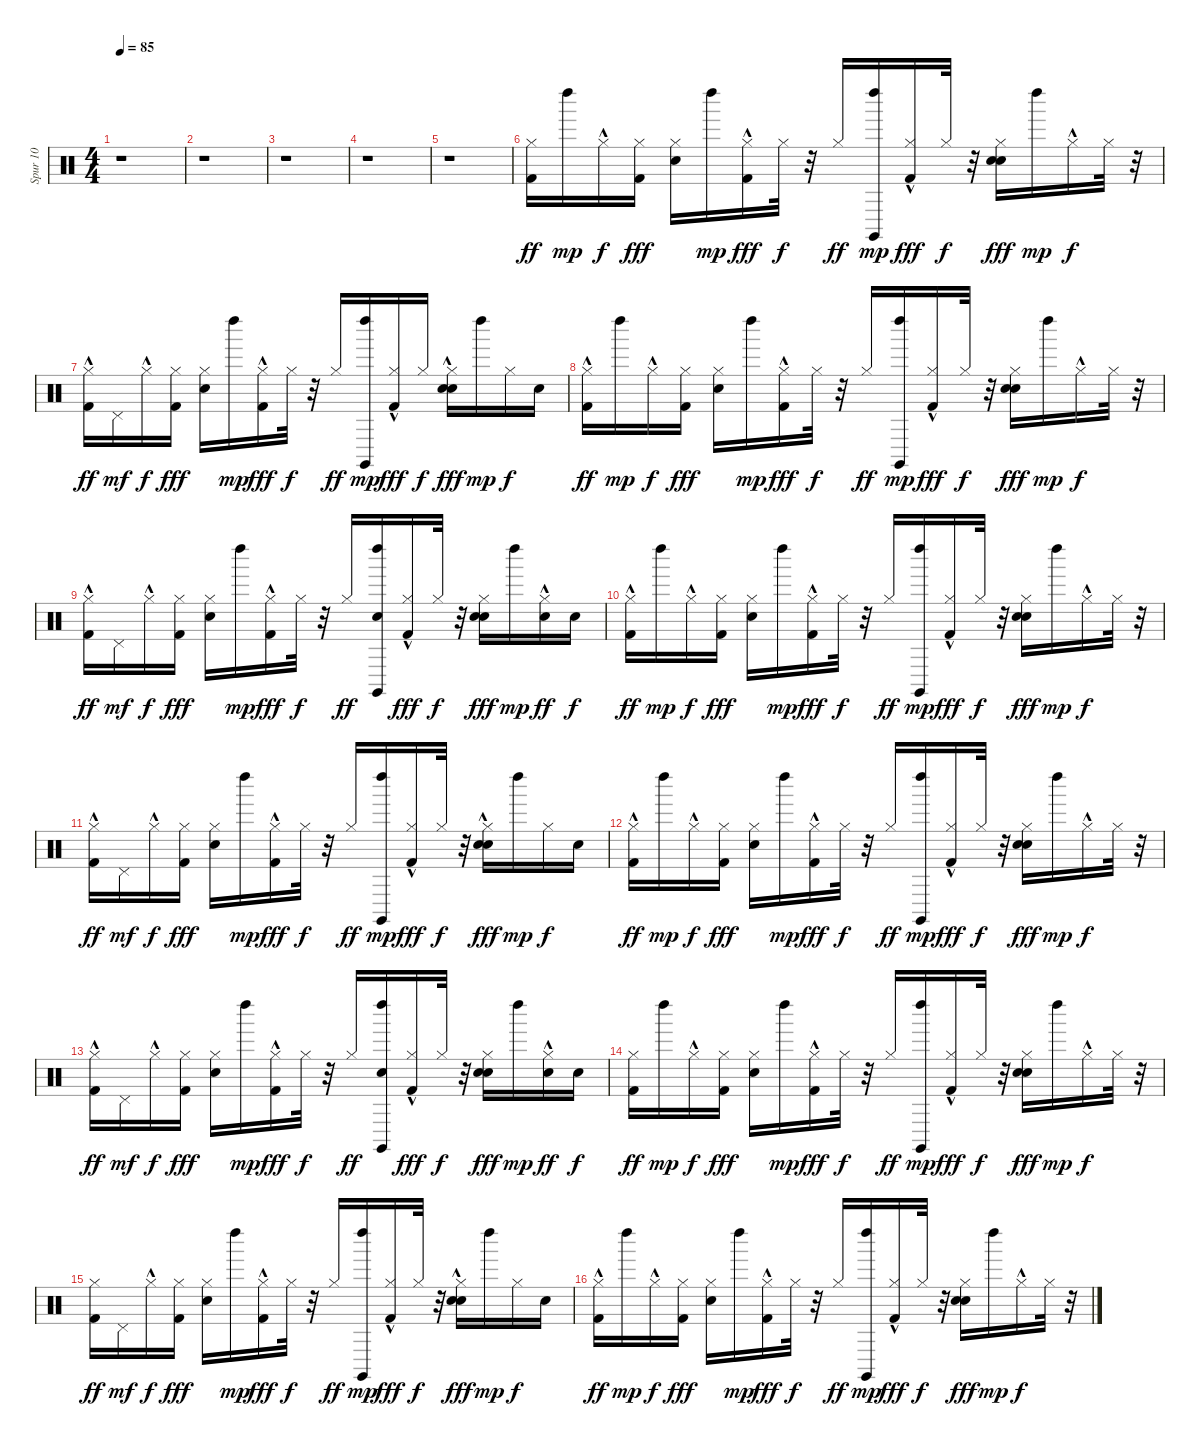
\track ("Spur 10" "Spur 10") {instrument percussion}
\staff {score}
\articulation defaults
\ts (4 4)
\tempo 85
\clef neutral
\ks c
r.1{dy ff} |
r.1 |
r.1 |
r.1 |
r.1 |
("Kick (hit) 2" "Hi-Hat (closed)").16 "Left Maraca (hit)".16{dy mp} "Hi-Hat (closed)"{hac}.16{dy f} ("Kick (hit) 2" "Hi-Hat (closed)").16{dy fff} ("Hi-Hat (closed)" "Snare (hit) 2").16 "Left Maraca (hit)".16{dy mp} ("Kick (hit) 2" "Hi-Hat (closed)"{hac}).16{dy fff} "Hi-Hat (closed)".32{dy f} r.32 "Hi-Hat (closed)".16{dy ff} ("Left Maraca (hit)" "Claves (hit)").16{dy mp} ("Kick (hit) 2"{hac} "Hi-Hat (closed)").16{dy fff} "Hi-Hat (closed)".32{dy f} r.32 ("Hi-Hat (closed)" "Snare (hit) 2" "Hand Clap (hit)").16{dy fff} "Left Maraca (hit)".16{dy mp} "Hi-Hat (closed)"{hac}.16{dy f} "Hi-Hat (closed)".32 r.32 |
("Kick (hit) 2"{hac} "Hi-Hat (closed)").16{dy ff} "Pedal Hi-Hat (hit)".16{dy mf} "Hi-Hat (closed)"{hac}.16{dy f} ("Kick (hit) 2" "Hi-Hat (closed)").16{dy fff} ("Hi-Hat (closed)" "Snare (hit) 2").16 "Left Maraca (hit)".16{dy mp} ("Kick (hit) 2" "Hi-Hat (closed)"{hac}).16{dy fff} "Hi-Hat (closed)".32{dy f} r.32 "Hi-Hat (closed)".16{dy ff} ("Left Maraca (hit)" "Claves (hit)").16{dy mp} ("Kick (hit) 2" "Hi-Hat (closed)"{hac}).16{dy fff} "Hi-Hat (closed)".16{dy f} ("Hi-Hat (closed)" "Snare (hit) 2"{hac} "Hand Clap (hit)").16{dy fff} "Left Maraca (hit)".16{dy mp} "Hi-Hat (closed)".16{dy f} "Snare (hit) 2".16 |
("Kick (hit) 2"{hac} "Hi-Hat (closed)").16{dy ff} "Left Maraca (hit)".16{dy mp} "Hi-Hat (closed)"{hac}.16{dy f} ("Kick (hit) 2" "Hi-Hat (closed)").16{dy fff} ("Hi-Hat (closed)" "Snare (hit) 2").16 "Left Maraca (hit)".16{dy mp} ("Kick (hit) 2" "Hi-Hat (closed)"{hac}).16{dy fff} "Hi-Hat (closed)".32{dy f} r.32 "Hi-Hat (closed)".16{dy ff} ("Left Maraca (hit)" "Claves (hit)").16{dy mp} ("Kick (hit) 2"{hac} "Hi-Hat (closed)"{hac}).16{dy fff} "Hi-Hat (closed)".32{dy f} r.32 ("Hi-Hat (closed)" "Snare (hit) 2" "Hand Clap (hit)").16{dy fff} "Left Maraca (hit)".16{dy mp} "Hi-Hat (closed)"{hac}.16{dy f} "Hi-Hat (closed)".32 r.32 |
("Kick (hit) 2"{hac} "Hi-Hat (closed)").16{dy ff} "Pedal Hi-Hat (hit)".16{dy mf} "Hi-Hat (closed)"{hac}.16{dy f} ("Kick (hit) 2" "Hi-Hat (closed)").16{dy fff} ("Hi-Hat (closed)" "Snare (hit) 2").16 "Left Maraca (hit)".16{dy mp} ("Kick (hit) 2" "Hi-Hat (closed)"{hac}).16{dy fff} "Hi-Hat (closed)".32{dy f} r.32 "Hi-Hat (closed)".16{dy ff} ("Left Maraca (hit)" "Claves (hit)" "Snare (hit) 2").16 ("Kick (hit) 2"{hac} "Hi-Hat (closed)"{hac}).16{dy fff} "Hi-Hat (closed)".32{dy f} r.32 ("Hi-Hat (closed)" "Snare (hit) 2" "Hand Clap (hit)").16{dy fff} "Left Maraca (hit)".16{dy mp} ("Hi-Hat (closed)" "Snare (hit) 2"{hac}).16{dy ff} "Snare (hit) 2".16{dy f} |
("Kick (hit) 2"{hac} "Hi-Hat (closed)").16{dy ff} "Left Maraca (hit)".16{dy mp} "Hi-Hat (closed)"{hac}.16{dy f} ("Kick (hit) 2" "Hi-Hat (closed)").16{dy fff} ("Hi-Hat (closed)" "Snare (hit) 2").16 "Left Maraca (hit)".16{dy mp} ("Kick (hit) 2" "Hi-Hat (closed)"{hac}).16{dy fff} "Hi-Hat (closed)".32{dy f} r.32 "Hi-Hat (closed)".16{dy ff} ("Left Maraca (hit)" "Claves (hit)").16{dy mp} ("Kick (hit) 2"{hac} "Hi-Hat (closed)"{hac}).16{dy fff} "Hi-Hat (closed)".32{dy f} r.32 ("Hi-Hat (closed)" "Snare (hit) 2" "Hand Clap (hit)").16{dy fff} "Left Maraca (hit)".16{dy mp} "Hi-Hat (closed)"{hac}.16{dy f} "Hi-Hat (closed)".32 r.32 |
("Kick (hit) 2"{hac} "Hi-Hat (closed)").16{dy ff} "Pedal Hi-Hat (hit)".16{dy mf} "Hi-Hat (closed)"{hac}.16{dy f} ("Kick (hit) 2" "Hi-Hat (closed)").16{dy fff} ("Hi-Hat (closed)" "Snare (hit) 2").16 "Left Maraca (hit)".16{dy mp} ("Kick (hit) 2" "Hi-Hat (closed)"{hac}).16{dy fff} "Hi-Hat (closed)".32{dy f} r.32 "Hi-Hat (closed)".16{dy ff} ("Left Maraca (hit)" "Claves (hit)").16{dy mp} ("Kick (hit) 2"{hac} "Hi-Hat (closed)"{hac}).16{dy fff} "Hi-Hat (closed)".32{dy f} r.32 ("Hi-Hat (closed)" "Snare (hit) 2"{hac} "Hand Clap (hit)").16{dy fff} "Left Maraca (hit)".16{dy mp} "Hi-Hat (closed)".16{dy f} "Snare (hit) 2".16 |
("Kick (hit) 2"{hac} "Hi-Hat (closed)").16{dy ff} "Left Maraca (hit)".16{dy mp} "Hi-Hat (closed)"{hac}.16{dy f} ("Kick (hit) 2" "Hi-Hat (closed)").16{dy fff} ("Hi-Hat (closed)" "Snare (hit) 2").16 "Left Maraca (hit)".16{dy mp} ("Kick (hit) 2" "Hi-Hat (closed)"{hac}).16{dy fff} "Hi-Hat (closed)".32{dy f} r.32 "Hi-Hat (closed)".16{dy ff} ("Left Maraca (hit)" "Claves (hit)").16{dy mp} ("Kick (hit) 2"{hac} "Hi-Hat (closed)"{hac}).16{dy fff} "Hi-Hat (closed)".32{dy f} r.32 ("Hi-Hat (closed)" "Snare (hit) 2" "Hand Clap (hit)").16{dy fff} "Left Maraca (hit)".16{dy mp} "Hi-Hat (closed)"{hac}.16{dy f} "Hi-Hat (closed)".32 r.32 |
("Kick (hit) 2"{hac} "Hi-Hat (closed)").16{dy ff} "Pedal Hi-Hat (hit)".16{dy mf} "Hi-Hat (closed)"{hac}.16{dy f} ("Kick (hit) 2" "Hi-Hat (closed)").16{dy fff} ("Hi-Hat (closed)" "Snare (hit) 2").16 "Left Maraca (hit)".16{dy mp} ("Kick (hit) 2" "Hi-Hat (closed)"{hac}).16{dy fff} "Hi-Hat (closed)".32{dy f} r.32 "Hi-Hat (closed)".16{dy ff} ("Left Maraca (hit)" "Claves (hit)" "Snare (hit) 2").16 ("Kick (hit) 2"{hac} "Hi-Hat (closed)").16{dy fff} "Hi-Hat (closed)".32{dy f} r.32 ("Hi-Hat (closed)" "Snare (hit) 2" "Hand Clap (hit)").16{dy fff} "Left Maraca (hit)".16{dy mp} ("Hi-Hat (closed)" "Snare (hit) 2"{hac}).16{dy ff} "Snare (hit) 2".16{dy f} |
("Kick (hit) 2" "Hi-Hat (closed)").16{dy ff} "Left Maraca (hit)".16{dy mp} "Hi-Hat (closed)"{hac}.16{dy f} ("Kick (hit) 2" "Hi-Hat (closed)").16{dy fff} ("Hi-Hat (closed)" "Snare (hit) 2").16 "Left Maraca (hit)".16{dy mp} ("Kick (hit) 2" "Hi-Hat (closed)"{hac}).16{dy fff} "Hi-Hat (closed)".32{dy f} r.32 "Hi-Hat (closed)".16{dy ff} ("Left Maraca (hit)" "Claves (hit)").16{dy mp} ("Kick (hit) 2"{hac} "Hi-Hat (closed)"{hac}).16{dy fff} "Hi-Hat (closed)".32{dy f} r.32 ("Hi-Hat (closed)" "Snare (hit) 2" "Hand Clap (hit)").16{dy fff} "Left Maraca (hit)".16{dy mp} "Hi-Hat (closed)"{hac}.16{dy f} "Hi-Hat (closed)".32 r.32 |
("Kick (hit) 2" "Hi-Hat (closed)").16{dy ff} "Pedal Hi-Hat (hit)".16{dy mf} "Hi-Hat (closed)"{hac}.16{dy f} ("Kick (hit) 2" "Hi-Hat (closed)").16{dy fff} ("Hi-Hat (closed)" "Snare (hit) 2").16 "Left Maraca (hit)".16{dy mp} ("Kick (hit) 2" "Hi-Hat (closed)"{hac}).16{dy fff} "Hi-Hat (closed)".32{dy f} r.32 "Hi-Hat (closed)".16{dy ff} ("Left Maraca (hit)" "Claves (hit)").16{dy mp} ("Kick (hit) 2"{hac} "Hi-Hat (closed)"{hac}).16{dy fff} "Hi-Hat (closed)".32{dy f} r.32 ("Hi-Hat (closed)" "Snare (hit) 2"{hac} "Hand Clap (hit)").16{dy fff} "Left Maraca (hit)".16{dy mp} "Hi-Hat (closed)".16{dy f} "Snare (hit) 2".16 |
("Kick (hit) 2"{hac} "Hi-Hat (closed)").16{dy ff} "Left Maraca (hit)".16{dy mp} "Hi-Hat (closed)"{hac}.16{dy f} ("Kick (hit) 2" "Hi-Hat (closed)").16{dy fff} ("Hi-Hat (closed)" "Snare (hit) 2").16 "Left Maraca (hit)".16{dy mp} ("Kick (hit) 2" "Hi-Hat (closed)"{hac}).16{dy fff} "Hi-Hat (closed)".32{dy f} r.32 "Hi-Hat (closed)".16{dy ff} ("Left Maraca (hit)" "Claves (hit)").16{dy mp} ("Kick (hit) 2" "Hi-Hat (closed)"{hac}).16{dy fff} "Hi-Hat (closed)".32{dy f} r.32 ("Hi-Hat (closed)" "Snare (hit) 2" "Hand Clap (hit)").16{dy fff} "Left Maraca (hit)".16{dy mp} "Hi-Hat (closed)"{hac}.16{dy f} "Hi-Hat (closed)".32 r.32
